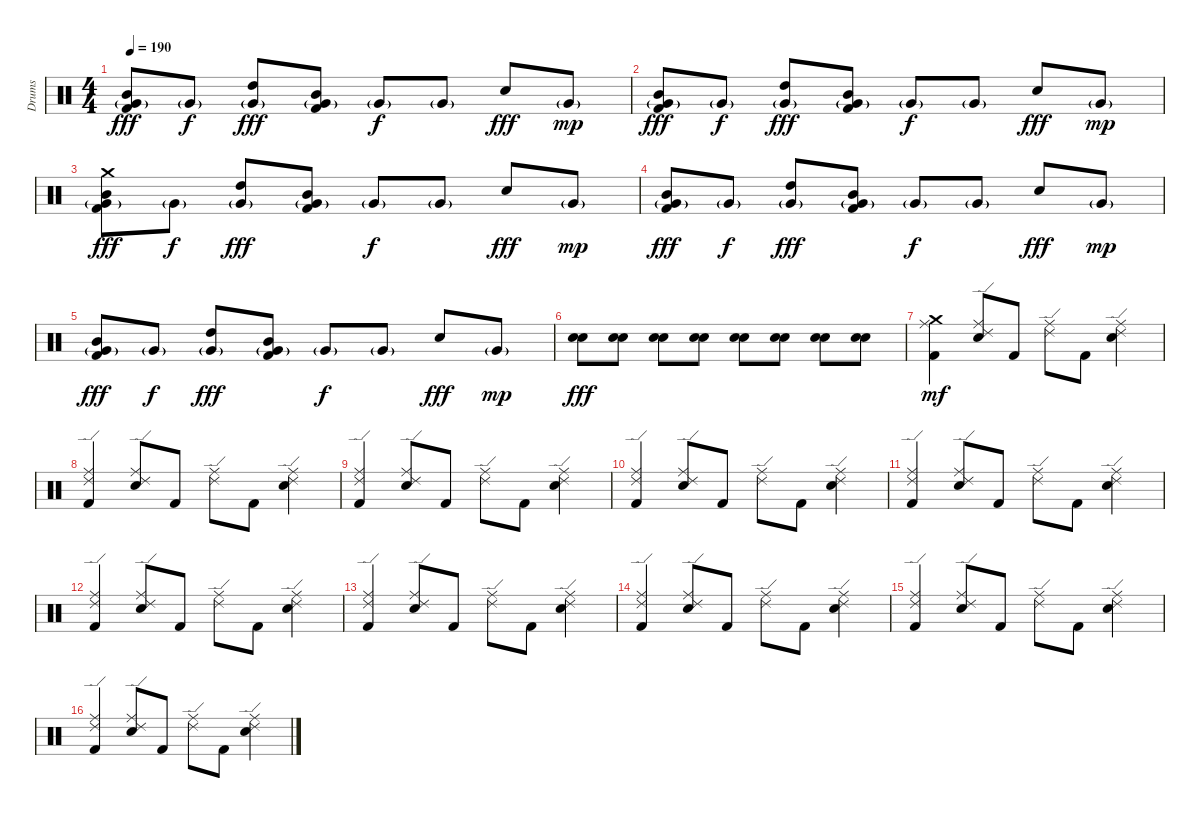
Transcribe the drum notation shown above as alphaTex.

\track ("Drums" "Drums") {instrument percussion}
\staff {score}
\articulation defaults
\ts (4 4)
\tempo 190
\clef neutral
\ks c
("Mid Tom (hit)" "Very Low Tom (hit)"{g} "Kick (hit) 2").8{dy fff} "Very Low Tom (hit)"{g}.8{dy f} ("High Tom (hit)" "Very Low Tom (hit)"{g}).8{dy fff} ("Mid Tom (hit)" "Very Low Tom (hit)"{g} "Kick (hit) 2").8 "Very Low Tom (hit)"{g}.8{dy f} "Very Low Tom (hit)"{g}.8 "Electric Snare (hit)".8{dy fff} "Very Low Tom (hit)"{g}.8{dy mp} |
("Mid Tom (hit)" "Very Low Tom (hit)"{g} "Kick (hit) 2").8{dy fff} "Very Low Tom (hit)"{g}.8{dy f} ("High Tom (hit)" "Very Low Tom (hit)"{g}).8{dy fff} ("Mid Tom (hit)" "Very Low Tom (hit)"{g} "Kick (hit) 2").8 "Very Low Tom (hit)"{g}.8{dy f} "Very Low Tom (hit)"{g}.8 "Electric Snare (hit)".8{dy fff} "Very Low Tom (hit)"{g}.8{dy mp} |
("Crash medium (hit)" "Mid Tom (hit)" "Very Low Tom (hit)"{g} "Kick (hit) 2").8{dy fff} "Very Low Tom (hit)"{g}.8{dy f} ("High Tom (hit)" "Very Low Tom (hit)"{g}).8{dy fff} ("Mid Tom (hit)" "Very Low Tom (hit)"{g} "Kick (hit) 2").8 "Very Low Tom (hit)"{g}.8{dy f} "Very Low Tom (hit)"{g}.8 "Electric Snare (hit)".8{dy fff} "Very Low Tom (hit)"{g}.8{dy mp} |
("Mid Tom (hit)" "Very Low Tom (hit)"{g} "Kick (hit) 2").8{dy fff} "Very Low Tom (hit)"{g}.8{dy f} ("High Tom (hit)" "Very Low Tom (hit)"{g}).8{dy fff} ("Mid Tom (hit)" "Very Low Tom (hit)"{g} "Kick (hit) 2").8 "Very Low Tom (hit)"{g}.8{dy f} "Very Low Tom (hit)"{g}.8 "Electric Snare (hit)".8{dy fff} "Very Low Tom (hit)"{g}.8{dy mp} |
("Mid Tom (hit)" "Very Low Tom (hit)"{g} "Kick (hit) 2").8{dy fff} "Very Low Tom (hit)"{g}.8{dy f} ("High Tom (hit)" "Very Low Tom (hit)"{g}).8{dy fff} ("Mid Tom (hit)" "Very Low Tom (hit)"{g} "Kick (hit) 2").8 "Very Low Tom (hit)"{g}.8{dy f} "Very Low Tom (hit)"{g}.8 "Electric Snare (hit)".8{dy fff} "Very Low Tom (hit)"{g}.8{dy mp volume 5} |
("Snare (hit) 2" "Electric Snare (hit)").8{dy fff volume 14} ("Snare (hit) 2" "Electric Snare (hit)").8 ("Snare (hit) 2" "Electric Snare (hit)").8 ("Snare (hit) 2" "Electric Snare (hit)").8 ("Snare (hit) 2" "Electric Snare (hit)").8 ("Snare (hit) 2" "Electric Snare (hit)").8 ("Snare (hit) 2" "Electric Snare (hit)").8 ("Snare (hit) 2" "Electric Snare (hit)").8 |
("Crash medium (hit)" "Ride (middle)" "Kick (hit) 2").4{dy mf} ("Ride (edge) 2" "Ride (middle)" "Snare (hit) 2").8 "Kick (hit) 2".8 ("Ride (edge) 2" "Ride (middle)").8 "Kick (hit) 2".8 ("Ride (edge) 2" "Ride (middle)" "Snare (hit) 2").4 |
("Ride (edge) 2" "Ride (middle)" "Kick (hit) 2").4 ("Ride (edge) 2" "Ride (middle)" "Snare (hit) 2").8 "Kick (hit) 2".8 ("Ride (edge) 2" "Ride (middle)").8 "Kick (hit) 2".8 ("Ride (edge) 2" "Ride (middle)" "Snare (hit) 2").4 |
("Ride (edge) 2" "Ride (middle)" "Kick (hit) 2").4 ("Ride (edge) 2" "Ride (middle)" "Snare (hit) 2").8 "Kick (hit) 2".8 ("Ride (edge) 2" "Ride (middle)").8 "Kick (hit) 2".8 ("Ride (edge) 2" "Ride (middle)" "Snare (hit) 2").4 |
("Ride (edge) 2" "Ride (middle)" "Kick (hit) 2").4 ("Ride (edge) 2" "Ride (middle)" "Snare (hit) 2").8 "Kick (hit) 2".8 ("Ride (edge) 2" "Ride (middle)").8 "Kick (hit) 2".8 ("Ride (edge) 2" "Ride (middle)" "Snare (hit) 2").4 |
("Ride (edge) 2" "Ride (middle)" "Kick (hit) 2").4 ("Ride (edge) 2" "Ride (middle)" "Snare (hit) 2").8 "Kick (hit) 2".8 ("Ride (edge) 2" "Ride (middle)").8 "Kick (hit) 2".8 ("Ride (edge) 2" "Ride (middle)" "Snare (hit) 2").4 |
("Ride (edge) 2" "Ride (middle)" "Kick (hit) 2").4 ("Ride (edge) 2" "Ride (middle)" "Snare (hit) 2").8 "Kick (hit) 2".8 ("Ride (edge) 2" "Ride (middle)").8 "Kick (hit) 2".8 ("Ride (edge) 2" "Ride (middle)" "Snare (hit) 2").4 |
("Ride (edge) 2" "Ride (middle)" "Kick (hit) 2").4 ("Ride (edge) 2" "Ride (middle)" "Snare (hit) 2").8 "Kick (hit) 2".8 ("Ride (edge) 2" "Ride (middle)").8 "Kick (hit) 2".8 ("Ride (edge) 2" "Ride (middle)" "Snare (hit) 2").4 |
("Ride (edge) 2" "Ride (middle)" "Kick (hit) 2").4 ("Ride (edge) 2" "Ride (middle)" "Snare (hit) 2").8 "Kick (hit) 2".8 ("Ride (edge) 2" "Ride (middle)").8 "Kick (hit) 2".8 ("Ride (edge) 2" "Ride (middle)" "Snare (hit) 2").4 |
("Ride (edge) 2" "Ride (middle)" "Kick (hit) 2").4 ("Ride (edge) 2" "Ride (middle)" "Snare (hit) 2").8 "Kick (hit) 2".8 ("Ride (edge) 2" "Ride (middle)").8 "Kick (hit) 2".8 ("Ride (edge) 2" "Ride (middle)" "Snare (hit) 2").4 |
("Ride (edge) 2" "Ride (middle)" "Kick (hit) 2").4 ("Ride (edge) 2" "Ride (middle)" "Snare (hit) 2").8 "Kick (hit) 2".8 ("Ride (edge) 2" "Ride (middle)").8 "Kick (hit) 2".8 ("Ride (edge) 2" "Ride (middle)" "Snare (hit) 2").4
